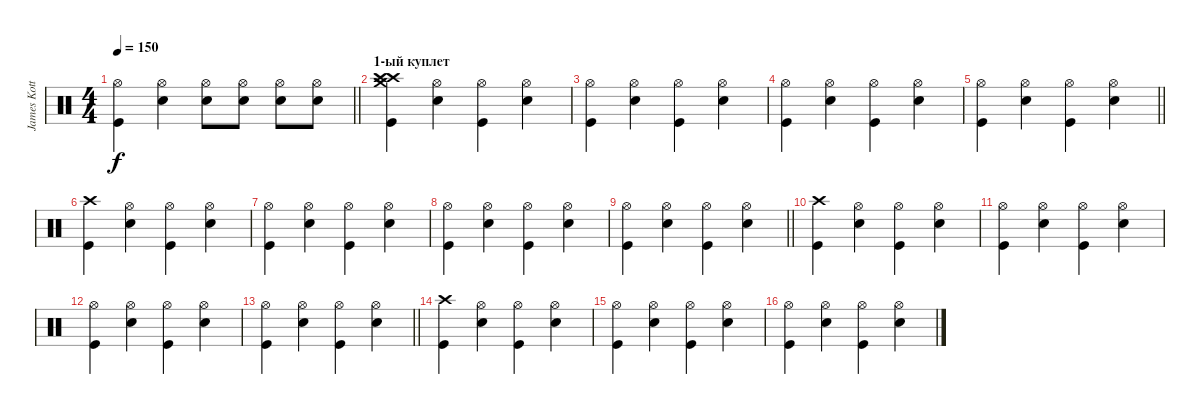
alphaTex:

\track ("James Kottak" "James Kott") {instrument percussion}
\staff {score}
\articulation defaults
\ts (4 4)
\tempo 150
\clef neutral
\barLineRight lightlight
\ks c
("Hi-Hat (open)" "Kick (hit)").4{dy f} ("Hi-Hat (open)" "Snare (hit) 2").4 ("Hi-Hat (open)" "Snare (hit) 2").8 ("Hi-Hat (open)" "Snare (hit) 2").8 ("Hi-Hat (open)" "Snare (hit) 2").8 ("Hi-Hat (open)" "Snare (hit) 2").8 |
\section ("" "1-ый куплет")
("Crash high (hit)" "Crash medium (hit)" "Crash high (hit)" "Kick (hit)").4 ("Hi-Hat (open)" "Snare (hit) 2").4 ("Hi-Hat (open)" "Kick (hit)").4 ("Hi-Hat (open)" "Snare (hit) 2").4 |
("Hi-Hat (open)" "Kick (hit)").4 ("Hi-Hat (open)" "Snare (hit) 2").4 ("Hi-Hat (open)" "Kick (hit)").4 ("Hi-Hat (open)" "Snare (hit) 2").4 |
("Hi-Hat (open)" "Kick (hit)").4 ("Hi-Hat (open)" "Snare (hit) 2").4 ("Hi-Hat (open)" "Kick (hit)").4 ("Hi-Hat (open)" "Snare (hit) 2").4 |
\barLineRight lightlight
("Hi-Hat (open)" "Kick (hit)").4 ("Hi-Hat (open)" "Snare (hit) 2").4 ("Hi-Hat (open)" "Kick (hit)").4 ("Hi-Hat (open)" "Snare (hit) 2").4 |
("Crash high (hit)" "Kick (hit)").4 ("Hi-Hat (open)" "Snare (hit) 2").4 ("Hi-Hat (open)" "Kick (hit)").4 ("Hi-Hat (open)" "Snare (hit) 2").4 |
("Hi-Hat (open)" "Kick (hit)").4 ("Hi-Hat (open)" "Snare (hit) 2").4 ("Hi-Hat (open)" "Kick (hit)").4 ("Hi-Hat (open)" "Snare (hit) 2").4 |
("Hi-Hat (open)" "Kick (hit)").4 ("Hi-Hat (open)" "Snare (hit) 2").4 ("Hi-Hat (open)" "Kick (hit)").4 ("Hi-Hat (open)" "Snare (hit) 2").4 |
\barLineRight lightlight
("Hi-Hat (open)" "Kick (hit)").4 ("Hi-Hat (open)" "Snare (hit) 2").4 ("Hi-Hat (open)" "Kick (hit)").4 ("Hi-Hat (open)" "Snare (hit) 2").4 |
("Crash high (hit)" "Kick (hit)").4 ("Hi-Hat (open)" "Snare (hit) 2").4 ("Hi-Hat (open)" "Kick (hit)").4 ("Hi-Hat (open)" "Snare (hit) 2").4 |
("Hi-Hat (open)" "Kick (hit)").4 ("Hi-Hat (open)" "Snare (hit) 2").4 ("Hi-Hat (open)" "Kick (hit)").4 ("Hi-Hat (open)" "Snare (hit) 2").4 |
("Hi-Hat (open)" "Kick (hit)").4 ("Hi-Hat (open)" "Snare (hit) 2").4 ("Hi-Hat (open)" "Kick (hit)").4 ("Hi-Hat (open)" "Snare (hit) 2").4 |
\barLineRight lightlight
("Hi-Hat (open)" "Kick (hit)").4 ("Hi-Hat (open)" "Snare (hit) 2").4 ("Hi-Hat (open)" "Kick (hit)").4 ("Hi-Hat (open)" "Snare (hit) 2").4 |
("Crash high (hit)" "Kick (hit)").4 ("Hi-Hat (open)" "Snare (hit) 2").4 ("Hi-Hat (open)" "Kick (hit)").4 ("Hi-Hat (open)" "Snare (hit) 2").4 |
("Hi-Hat (open)" "Kick (hit)").4 ("Hi-Hat (open)" "Snare (hit) 2").4 ("Hi-Hat (open)" "Kick (hit)").4 ("Hi-Hat (open)" "Snare (hit) 2").4 |
("Hi-Hat (open)" "Kick (hit)").4 ("Hi-Hat (open)" "Snare (hit) 2").4 ("Hi-Hat (open)" "Kick (hit)").4 ("Hi-Hat (open)" "Snare (hit) 2").4
